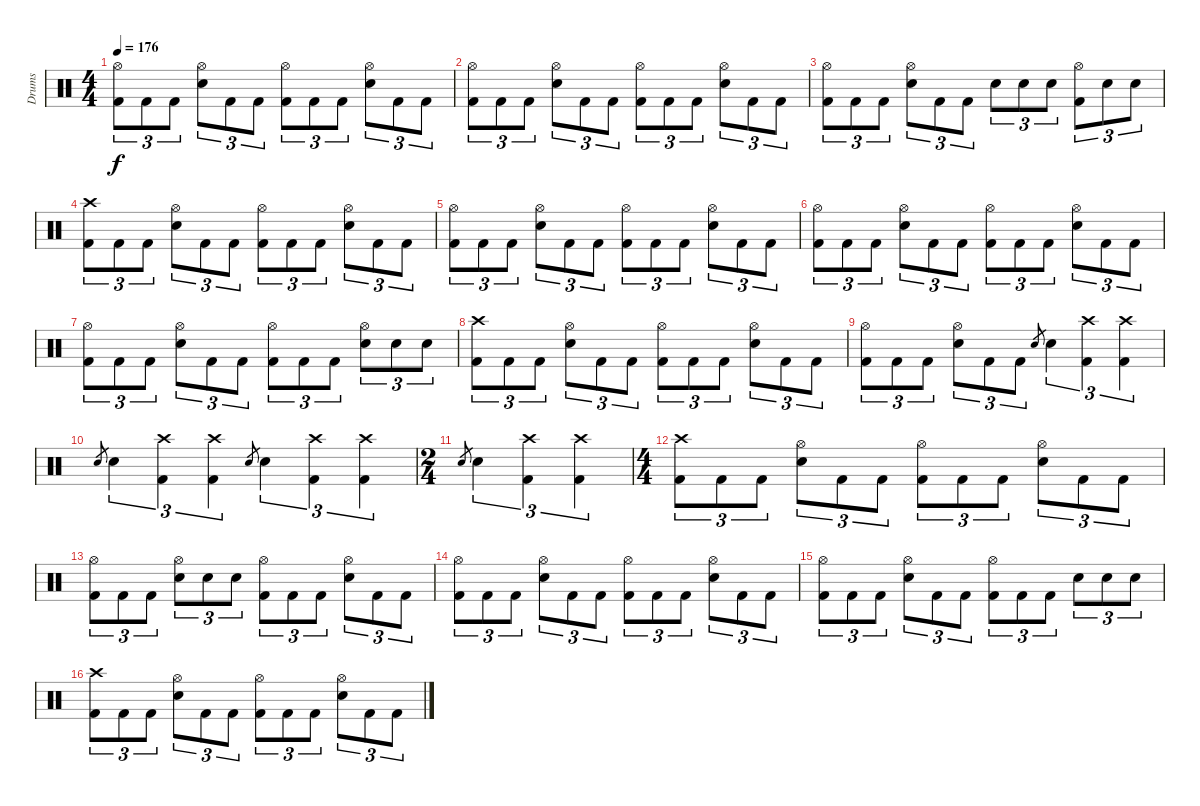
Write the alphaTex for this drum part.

\track ("Drums" "Drums") {instrument percussion}
\staff {score}
\articulation defaults
\ts (4 4)
\tempo 176
\clef neutral
\ks c
("Hi-Hat (open)" "Kick (hit) 2").8{tu (3 2) dy f} "Kick (hit) 2".8{tu (3 2)} "Kick (hit) 2".8{tu (3 2)} ("Hi-Hat (open)" "Electric Snare (hit)").8{tu (3 2)} "Kick (hit) 2".8{tu (3 2)} "Kick (hit) 2".8{tu (3 2)} ("Hi-Hat (open)" "Kick (hit) 2").8{tu (3 2)} "Kick (hit) 2".8{tu (3 2)} "Kick (hit) 2".8{tu (3 2)} ("Hi-Hat (open)" "Electric Snare (hit)").8{tu (3 2)} "Kick (hit) 2".8{tu (3 2)} "Kick (hit) 2".8{tu (3 2)} |
("Hi-Hat (open)" "Kick (hit) 2").8{tu (3 2)} "Kick (hit) 2".8{tu (3 2)} "Kick (hit) 2".8{tu (3 2)} ("Hi-Hat (open)" "Electric Snare (hit)").8{tu (3 2)} "Kick (hit) 2".8{tu (3 2)} "Kick (hit) 2".8{tu (3 2)} ("Hi-Hat (open)" "Kick (hit) 2").8{tu (3 2)} "Kick (hit) 2".8{tu (3 2)} "Kick (hit) 2".8{tu (3 2)} ("Hi-Hat (open)" "Electric Snare (hit)").8{tu (3 2)} "Kick (hit) 2".8{tu (3 2)} "Kick (hit) 2".8{tu (3 2)} |
("Hi-Hat (open)" "Kick (hit) 2").8{tu (3 2)} "Kick (hit) 2".8{tu (3 2)} "Kick (hit) 2".8{tu (3 2)} ("Hi-Hat (open)" "Electric Snare (hit)").8{tu (3 2)} "Kick (hit) 2".8{tu (3 2)} "Kick (hit) 2".8{tu (3 2)} "Electric Snare (hit)".8{tu (3 2)} "Electric Snare (hit)".8{tu (3 2)} "Electric Snare (hit)".8{tu (3 2)} ("Hi-Hat (open)" "Kick (hit) 2").8{tu (3 2)} "Electric Snare (hit)".8{tu (3 2)} "Electric Snare (hit)".8{tu (3 2)} |
("Crash high (hit)" "Kick (hit) 2").8{tu (3 2)} "Kick (hit) 2".8{tu (3 2)} "Kick (hit) 2".8{tu (3 2)} ("Hi-Hat (open)" "Electric Snare (hit)").8{tu (3 2)} "Kick (hit) 2".8{tu (3 2)} "Kick (hit) 2".8{tu (3 2)} ("Hi-Hat (open)" "Kick (hit) 2").8{tu (3 2)} "Kick (hit) 2".8{tu (3 2)} "Kick (hit) 2".8{tu (3 2)} ("Hi-Hat (open)" "Electric Snare (hit)").8{tu (3 2)} "Kick (hit) 2".8{tu (3 2)} "Kick (hit) 2".8{tu (3 2)} |
("Hi-Hat (open)" "Kick (hit) 2").8{tu (3 2)} "Kick (hit) 2".8{tu (3 2)} "Kick (hit) 2".8{tu (3 2)} ("Hi-Hat (open)" "Electric Snare (hit)").8{tu (3 2)} "Kick (hit) 2".8{tu (3 2)} "Kick (hit) 2".8{tu (3 2)} ("Hi-Hat (open)" "Kick (hit) 2").8{tu (3 2)} "Kick (hit) 2".8{tu (3 2)} "Kick (hit) 2".8{tu (3 2)} ("Hi-Hat (open)" "Electric Snare (hit)").8{tu (3 2)} "Kick (hit) 2".8{tu (3 2)} "Kick (hit) 2".8{tu (3 2)} |
("Hi-Hat (open)" "Kick (hit) 2").8{tu (3 2)} "Kick (hit) 2".8{tu (3 2)} "Kick (hit) 2".8{tu (3 2)} ("Hi-Hat (open)" "Electric Snare (hit)").8{tu (3 2)} "Kick (hit) 2".8{tu (3 2)} "Kick (hit) 2".8{tu (3 2)} ("Hi-Hat (open)" "Kick (hit) 2").8{tu (3 2)} "Kick (hit) 2".8{tu (3 2)} "Kick (hit) 2".8{tu (3 2)} ("Hi-Hat (open)" "Electric Snare (hit)").8{tu (3 2)} "Kick (hit) 2".8{tu (3 2)} "Kick (hit) 2".8{tu (3 2)} |
("Hi-Hat (open)" "Kick (hit) 2").8{tu (3 2)} "Kick (hit) 2".8{tu (3 2)} "Kick (hit) 2".8{tu (3 2)} ("Hi-Hat (open)" "Electric Snare (hit)").8{tu (3 2)} "Kick (hit) 2".8{tu (3 2)} "Kick (hit) 2".8{tu (3 2)} ("Hi-Hat (open)" "Kick (hit) 2").8{tu (3 2)} "Kick (hit) 2".8{tu (3 2)} "Kick (hit) 2".8{tu (3 2)} ("Hi-Hat (open)" "Electric Snare (hit)").8{tu (3 2)} "Electric Snare (hit)".8{tu (3 2)} "Electric Snare (hit)".8{tu (3 2)} |
("Crash high (hit)" "Kick (hit) 2").8{tu (3 2)} "Kick (hit) 2".8{tu (3 2)} "Kick (hit) 2".8{tu (3 2)} ("Hi-Hat (open)" "Electric Snare (hit)").8{tu (3 2)} "Kick (hit) 2".8{tu (3 2)} "Kick (hit) 2".8{tu (3 2)} ("Hi-Hat (open)" "Kick (hit) 2").8{tu (3 2)} "Kick (hit) 2".8{tu (3 2)} "Kick (hit) 2".8{tu (3 2)} ("Hi-Hat (open)" "Electric Snare (hit)").8{tu (3 2)} "Kick (hit) 2".8{tu (3 2)} "Kick (hit) 2".8{tu (3 2)} |
("Hi-Hat (open)" "Kick (hit) 2").8{tu (3 2)} "Kick (hit) 2".8{tu (3 2)} "Kick (hit) 2".8{tu (3 2)} ("Hi-Hat (open)" "Electric Snare (hit)").8{tu (3 2)} "Kick (hit) 2".8{tu (3 2)} "Kick (hit) 2".8{tu (3 2)} "Electric Snare (hit)".8{gr} "Electric Snare (hit)".4{tu (3 2)} ("Crash high (hit)" "Kick (hit) 2").4{tu (3 2)} ("Crash high (hit)" "Kick (hit) 2").4{tu (3 2)} |
"Electric Snare (hit)".8{gr} "Electric Snare (hit)".4{tu (3 2)} ("Crash high (hit)" "Kick (hit) 2").4{tu (3 2)} ("Crash high (hit)" "Kick (hit) 2").4{tu (3 2)} "Electric Snare (hit)".8{gr} "Electric Snare (hit)".4{tu (3 2)} ("Crash high (hit)" "Kick (hit) 2").4{tu (3 2)} ("Crash high (hit)" "Kick (hit) 2").4{tu (3 2)} |
\ts (2 4)
"Electric Snare (hit)".8{gr} "Electric Snare (hit)".4{tu (3 2)} ("Crash high (hit)" "Kick (hit) 2").4{tu (3 2)} ("Crash high (hit)" "Kick (hit) 2").4{tu (3 2)} |
\ts (4 4)
("Crash high (hit)" "Kick (hit) 2").8{tu (3 2)} "Kick (hit) 2".8{tu (3 2)} "Kick (hit) 2".8{tu (3 2)} ("Hi-Hat (open)" "Electric Snare (hit)").8{tu (3 2)} "Kick (hit) 2".8{tu (3 2)} "Kick (hit) 2".8{tu (3 2)} ("Hi-Hat (open)" "Kick (hit) 2").8{tu (3 2)} "Kick (hit) 2".8{tu (3 2)} "Kick (hit) 2".8{tu (3 2)} ("Hi-Hat (open)" "Electric Snare (hit)").8{tu (3 2)} "Kick (hit) 2".8{tu (3 2)} "Kick (hit) 2".8{tu (3 2)} |
("Hi-Hat (open)" "Kick (hit) 2").8{tu (3 2)} "Kick (hit) 2".8{tu (3 2)} "Kick (hit) 2".8{tu (3 2)} ("Hi-Hat (open)" "Electric Snare (hit)").8{tu (3 2)} "Electric Snare (hit)".8{tu (3 2)} "Electric Snare (hit)".8{tu (3 2)} ("Hi-Hat (open)" "Kick (hit) 2").8{tu (3 2)} "Kick (hit) 2".8{tu (3 2)} "Kick (hit) 2".8{tu (3 2)} ("Hi-Hat (open)" "Electric Snare (hit)").8{tu (3 2)} "Kick (hit) 2".8{tu (3 2)} "Kick (hit) 2".8{tu (3 2)} |
("Hi-Hat (open)" "Kick (hit) 2").8{tu (3 2)} "Kick (hit) 2".8{tu (3 2)} "Kick (hit) 2".8{tu (3 2)} ("Hi-Hat (open)" "Electric Snare (hit)").8{tu (3 2)} "Kick (hit) 2".8{tu (3 2)} "Kick (hit) 2".8{tu (3 2)} ("Hi-Hat (open)" "Kick (hit) 2").8{tu (3 2)} "Kick (hit) 2".8{tu (3 2)} "Kick (hit) 2".8{tu (3 2)} ("Hi-Hat (open)" "Electric Snare (hit)").8{tu (3 2)} "Kick (hit) 2".8{tu (3 2)} "Kick (hit) 2".8{tu (3 2)} |
("Hi-Hat (open)" "Kick (hit) 2").8{tu (3 2)} "Kick (hit) 2".8{tu (3 2)} "Kick (hit) 2".8{tu (3 2)} ("Hi-Hat (open)" "Electric Snare (hit)").8{tu (3 2)} "Kick (hit) 2".8{tu (3 2)} "Kick (hit) 2".8{tu (3 2)} ("Hi-Hat (open)" "Kick (hit) 2").8{tu (3 2)} "Kick (hit) 2".8{tu (3 2)} "Kick (hit) 2".8{tu (3 2)} "Electric Snare (hit)".8{tu (3 2)} "Electric Snare (hit)".8{tu (3 2)} "Electric Snare (hit)".8{tu (3 2)} |
("Crash high (hit)" "Kick (hit) 2").8{tu (3 2)} "Kick (hit) 2".8{tu (3 2)} "Kick (hit) 2".8{tu (3 2)} ("Hi-Hat (open)" "Electric Snare (hit)").8{tu (3 2)} "Kick (hit) 2".8{tu (3 2)} "Kick (hit) 2".8{tu (3 2)} ("Hi-Hat (open)" "Kick (hit) 2").8{tu (3 2)} "Kick (hit) 2".8{tu (3 2)} "Kick (hit) 2".8{tu (3 2)} ("Hi-Hat (open)" "Electric Snare (hit)").8{tu (3 2)} "Kick (hit) 2".8{tu (3 2)} "Kick (hit) 2".8{tu (3 2)}
